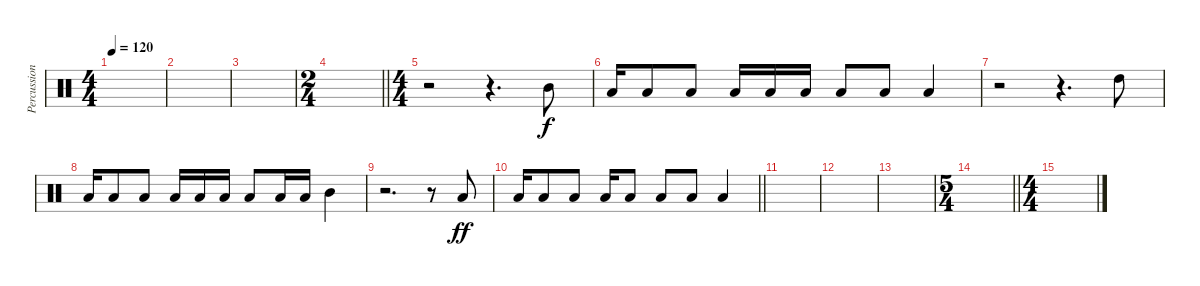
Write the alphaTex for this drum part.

\track ("Percussion" "Percussion") {instrument percussion}
\staff {score}
\articulation defaults
\ts (4 4)
\tempo 120
\clef neutral
\ks c
|
|
|
\ts (2 4)
\barLineRight lightlight
|
\ts (4 4)
r.2 r.4{d} "Mid Tom (hit)".8{dy f} |
"Low Tom (hit)".16 "Low Tom (hit)".8 "Low Tom (hit)".8 "Low Tom (hit)".16 "Low Tom (hit)".16 "Low Tom (hit)".16 "Low Floor Tom (hit)".8 "Low Floor Tom (hit)".8 "Low Floor Tom (hit)".4 |
r.2 r.4{d} "High Tom (hit)".8 |
"Low Tom (hit)".16 "Low Tom (hit)".8 "Low Floor Tom (hit)".8 "Low Tom (hit)".16 "Low Tom (hit)".16 "Low Tom (hit)".16 "Low Floor Tom (hit)".8 "Low Floor Tom (hit)".16 "Low Floor Tom (hit)".16 "Mid Tom (hit)".4 |
r.2{d} r.8 "Low Tom (hit)".8{dy ff} |
\barLineRight lightlight "Low Tom (hit)".16 "Low Tom (hit)".8 "Low Tom (hit)".8 "Low Tom (hit)".16 "Low Tom (hit)".8 "Low Tom (hit)".8 "Low Tom (hit)".8 "Low Tom (hit)".4
|
\section ("" "")
|
|
|
\ts (5 4)
\barLineRight lightlight
|
\ts (4 4)
